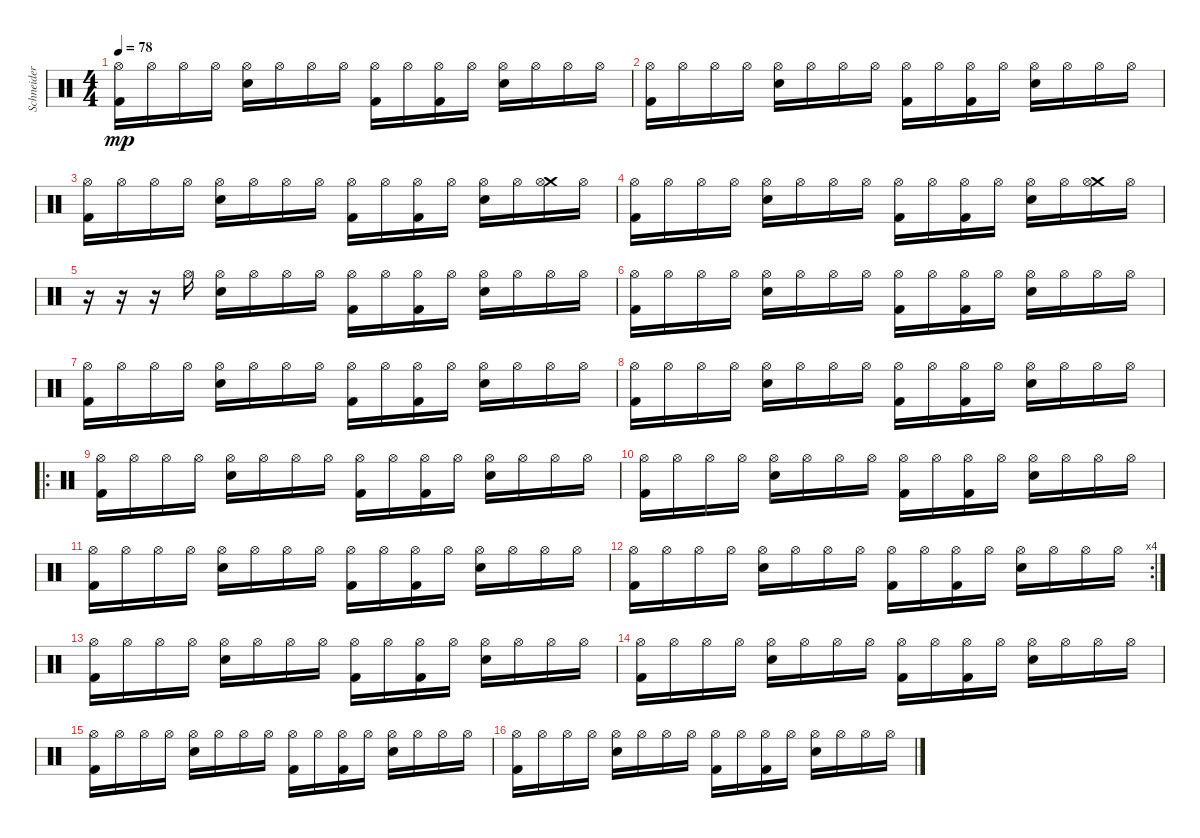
\track ("Schneider" "Schneider") {instrument percussion}
\staff {score}
\articulation defaults
\ts (4 4)
\tempo 78
\clef neutral
\ks c
("Kick (hit) 2" "Hi-Hat (open)").16{dy mp} "Hi-Hat (open)".16 "Hi-Hat (open)".16 "Hi-Hat (open)".16 ("Electric Snare (hit)" "Hi-Hat (open)").16 "Hi-Hat (open)".16 "Hi-Hat (open)".16 "Hi-Hat (open)".16 ("Kick (hit) 2" "Hi-Hat (open)").16 "Hi-Hat (open)".16 ("Kick (hit) 2" "Hi-Hat (open)").16 "Hi-Hat (open)".16 ("Electric Snare (hit)" "Hi-Hat (open)").16 "Hi-Hat (open)".16 "Hi-Hat (open)".16 "Hi-Hat (open)".16 |
("Kick (hit) 2" "Hi-Hat (open)").16 "Hi-Hat (open)".16 "Hi-Hat (open)".16 "Hi-Hat (open)".16 ("Electric Snare (hit)" "Hi-Hat (open)").16 "Hi-Hat (open)".16 "Hi-Hat (open)".16 "Hi-Hat (open)".16 ("Kick (hit) 2" "Hi-Hat (open)").16 "Hi-Hat (open)".16 ("Kick (hit) 2" "Hi-Hat (open)").16 "Hi-Hat (open)".16 ("Electric Snare (hit)" "Hi-Hat (open)").16 "Hi-Hat (open)".16 "Hi-Hat (open)".16 "Hi-Hat (open)".16 |
("Kick (hit) 2" "Hi-Hat (open)").16 "Hi-Hat (open)".16 "Hi-Hat (open)".16 "Hi-Hat (open)".16 ("Electric Snare (hit)" "Hi-Hat (open)").16 "Hi-Hat (open)".16 "Hi-Hat (open)".16 "Hi-Hat (open)".16 ("Kick (hit) 2" "Hi-Hat (open)").16 "Hi-Hat (open)".16 ("Kick (hit) 2" "Hi-Hat (open)").16 "Hi-Hat (open)".16 ("Electric Snare (hit)" "Hi-Hat (open)").16 "Hi-Hat (open)".16 ("Crash medium (hit)" "Hi-Hat (open)").16 "Hi-Hat (open)".16 |
("Kick (hit) 2" "Hi-Hat (open)").16 "Hi-Hat (open)".16 "Hi-Hat (open)".16 "Hi-Hat (open)".16 ("Electric Snare (hit)" "Hi-Hat (open)").16 "Hi-Hat (open)".16 "Hi-Hat (open)".16 "Hi-Hat (open)".16 ("Kick (hit) 2" "Hi-Hat (open)").16 "Hi-Hat (open)".16 ("Kick (hit) 2" "Hi-Hat (open)").16 "Hi-Hat (open)".16 ("Electric Snare (hit)" "Hi-Hat (open)").16 "Hi-Hat (open)".16 ("Crash medium (hit)" "Hi-Hat (open)").16 "Hi-Hat (open)".16 |
r.16 r.16 r.16 "Hi-Hat (open)".16 ("Electric Snare (hit)" "Hi-Hat (open)").16 "Hi-Hat (open)".16 "Hi-Hat (open)".16 "Hi-Hat (open)".16 ("Kick (hit) 2" "Hi-Hat (open)").16 "Hi-Hat (open)".16 ("Kick (hit) 2" "Hi-Hat (open)").16 "Hi-Hat (open)".16 ("Electric Snare (hit)" "Hi-Hat (open)").16 "Hi-Hat (open)".16 "Hi-Hat (open)".16 "Hi-Hat (open)".16 |
("Kick (hit) 2" "Hi-Hat (open)").16 "Hi-Hat (open)".16 "Hi-Hat (open)".16 "Hi-Hat (open)".16 ("Electric Snare (hit)" "Hi-Hat (open)").16 "Hi-Hat (open)".16 "Hi-Hat (open)".16 "Hi-Hat (open)".16 ("Kick (hit) 2" "Hi-Hat (open)").16 "Hi-Hat (open)".16 ("Kick (hit) 2" "Hi-Hat (open)").16 "Hi-Hat (open)".16 ("Electric Snare (hit)" "Hi-Hat (open)").16 "Hi-Hat (open)".16 "Hi-Hat (open)".16 "Hi-Hat (open)".16 |
("Kick (hit) 2" "Hi-Hat (open)").16 "Hi-Hat (open)".16 "Hi-Hat (open)".16 "Hi-Hat (open)".16 ("Electric Snare (hit)" "Hi-Hat (open)").16 "Hi-Hat (open)".16 "Hi-Hat (open)".16 "Hi-Hat (open)".16 ("Kick (hit) 2" "Hi-Hat (open)").16 "Hi-Hat (open)".16 ("Kick (hit) 2" "Hi-Hat (open)").16 "Hi-Hat (open)".16 ("Electric Snare (hit)" "Hi-Hat (open)").16 "Hi-Hat (open)".16 "Hi-Hat (open)".16 "Hi-Hat (open)".16 |
("Kick (hit) 2" "Hi-Hat (open)").16 "Hi-Hat (open)".16 "Hi-Hat (open)".16 "Hi-Hat (open)".16 ("Electric Snare (hit)" "Hi-Hat (open)").16 "Hi-Hat (open)".16 "Hi-Hat (open)".16 "Hi-Hat (open)".16 ("Kick (hit) 2" "Hi-Hat (open)").16 "Hi-Hat (open)".16 ("Kick (hit) 2" "Hi-Hat (open)").16 "Hi-Hat (open)".16 ("Electric Snare (hit)" "Hi-Hat (open)").16 "Hi-Hat (open)".16 "Hi-Hat (open)".16 "Hi-Hat (open)".16 |
\ro
("Kick (hit) 2" "Hi-Hat (open)").16 "Hi-Hat (open)".16 "Hi-Hat (open)".16 "Hi-Hat (open)".16 ("Electric Snare (hit)" "Hi-Hat (open)").16 "Hi-Hat (open)".16 "Hi-Hat (open)".16 "Hi-Hat (open)".16 ("Kick (hit) 2" "Hi-Hat (open)").16 "Hi-Hat (open)".16 ("Kick (hit) 2" "Hi-Hat (open)").16 "Hi-Hat (open)".16 ("Electric Snare (hit)" "Hi-Hat (open)").16 "Hi-Hat (open)".16 "Hi-Hat (open)".16 "Hi-Hat (open)".16 |
("Kick (hit) 2" "Hi-Hat (open)").16 "Hi-Hat (open)".16 "Hi-Hat (open)".16 "Hi-Hat (open)".16 ("Electric Snare (hit)" "Hi-Hat (open)").16 "Hi-Hat (open)".16 "Hi-Hat (open)".16 "Hi-Hat (open)".16 ("Kick (hit) 2" "Hi-Hat (open)").16 "Hi-Hat (open)".16 ("Kick (hit) 2" "Hi-Hat (open)").16 "Hi-Hat (open)".16 ("Electric Snare (hit)" "Hi-Hat (open)").16 "Hi-Hat (open)".16 "Hi-Hat (open)".16 "Hi-Hat (open)".16 |
("Kick (hit) 2" "Hi-Hat (open)").16 "Hi-Hat (open)".16 "Hi-Hat (open)".16 "Hi-Hat (open)".16 ("Electric Snare (hit)" "Hi-Hat (open)").16 "Hi-Hat (open)".16 "Hi-Hat (open)".16 "Hi-Hat (open)".16 ("Kick (hit) 2" "Hi-Hat (open)").16 "Hi-Hat (open)".16 ("Kick (hit) 2" "Hi-Hat (open)").16 "Hi-Hat (open)".16 ("Electric Snare (hit)" "Hi-Hat (open)").16 "Hi-Hat (open)".16 "Hi-Hat (open)".16 "Hi-Hat (open)".16 |
\rc 4
("Kick (hit) 2" "Hi-Hat (open)").16 "Hi-Hat (open)".16 "Hi-Hat (open)".16 "Hi-Hat (open)".16 ("Electric Snare (hit)" "Hi-Hat (open)").16 "Hi-Hat (open)".16 "Hi-Hat (open)".16 "Hi-Hat (open)".16 ("Kick (hit) 2" "Hi-Hat (open)").16 "Hi-Hat (open)".16 ("Kick (hit) 2" "Hi-Hat (open)").16 "Hi-Hat (open)".16 ("Electric Snare (hit)" "Hi-Hat (open)").16 "Hi-Hat (open)".16 "Hi-Hat (open)".16 "Hi-Hat (open)".16 |
("Kick (hit) 2" "Hi-Hat (open)").16 "Hi-Hat (open)".16 "Hi-Hat (open)".16 "Hi-Hat (open)".16 ("Electric Snare (hit)" "Hi-Hat (open)").16 "Hi-Hat (open)".16 "Hi-Hat (open)".16 "Hi-Hat (open)".16 ("Kick (hit) 2" "Hi-Hat (open)").16 "Hi-Hat (open)".16 ("Kick (hit) 2" "Hi-Hat (open)").16 "Hi-Hat (open)".16 ("Electric Snare (hit)" "Hi-Hat (open)").16 "Hi-Hat (open)".16 "Hi-Hat (open)".16 "Hi-Hat (open)".16 |
("Kick (hit) 2" "Hi-Hat (open)").16 "Hi-Hat (open)".16 "Hi-Hat (open)".16 "Hi-Hat (open)".16 ("Electric Snare (hit)" "Hi-Hat (open)").16 "Hi-Hat (open)".16 "Hi-Hat (open)".16 "Hi-Hat (open)".16 ("Kick (hit) 2" "Hi-Hat (open)").16 "Hi-Hat (open)".16 ("Kick (hit) 2" "Hi-Hat (open)").16 "Hi-Hat (open)".16 ("Electric Snare (hit)" "Hi-Hat (open)").16 "Hi-Hat (open)".16 "Hi-Hat (open)".16 "Hi-Hat (open)".16 |
("Kick (hit) 2" "Hi-Hat (open)").16 "Hi-Hat (open)".16 "Hi-Hat (open)".16 "Hi-Hat (open)".16 ("Electric Snare (hit)" "Hi-Hat (open)").16 "Hi-Hat (open)".16 "Hi-Hat (open)".16 "Hi-Hat (open)".16 ("Kick (hit) 2" "Hi-Hat (open)").16 "Hi-Hat (open)".16 ("Kick (hit) 2" "Hi-Hat (open)").16 "Hi-Hat (open)".16 ("Electric Snare (hit)" "Hi-Hat (open)").16 "Hi-Hat (open)".16 "Hi-Hat (open)".16 "Hi-Hat (open)".16 |
("Kick (hit) 2" "Hi-Hat (open)").16 "Hi-Hat (open)".16 "Hi-Hat (open)".16 "Hi-Hat (open)".16 ("Electric Snare (hit)" "Hi-Hat (open)").16 "Hi-Hat (open)".16 "Hi-Hat (open)".16 "Hi-Hat (open)".16 ("Kick (hit) 2" "Hi-Hat (open)").16 "Hi-Hat (open)".16 ("Kick (hit) 2" "Hi-Hat (open)").16 "Hi-Hat (open)".16 ("Electric Snare (hit)" "Hi-Hat (open)").16 "Hi-Hat (open)".16 "Hi-Hat (open)".16 "Hi-Hat (open)".16
